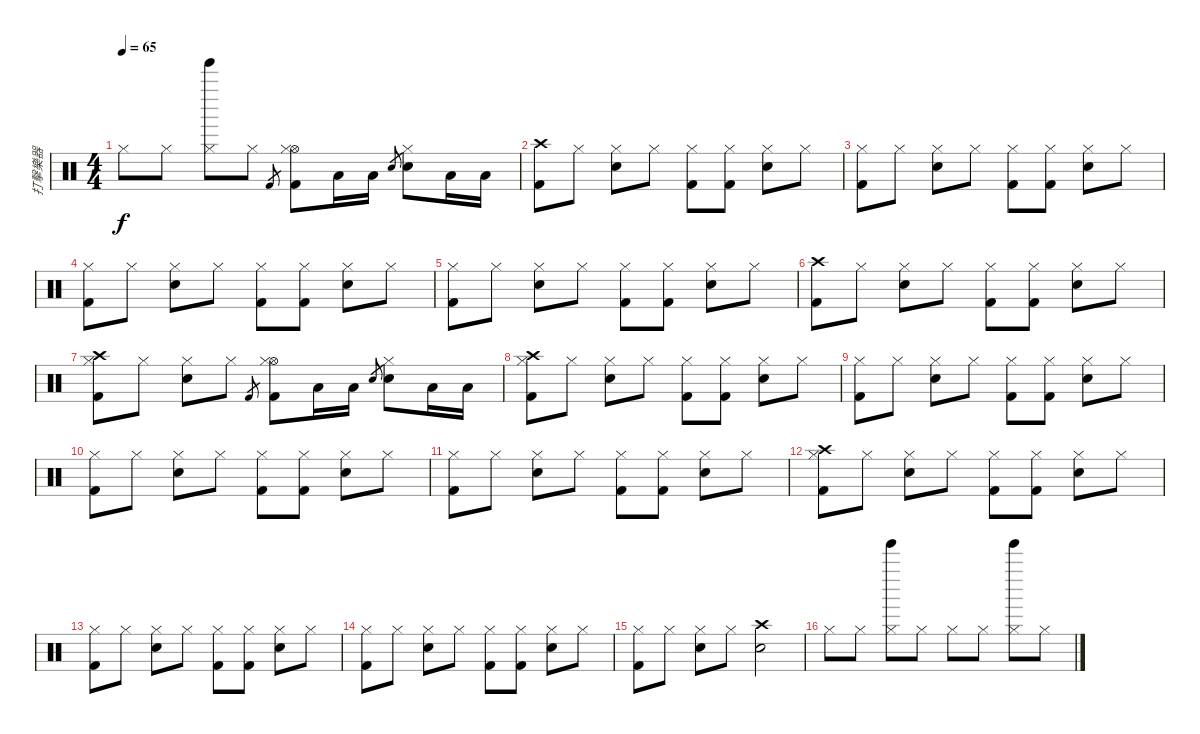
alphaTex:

\track ("打擊樂器" "打擊樂器") {instrument percussion}
\staff {score}
\articulation defaults
\ts (4 4)
\tempo 65
\clef neutral
\ks c "Hi-Hat (closed)".8{dy f} "Hi-Hat (closed)".8
("Tinkle Bell (hit)" "Hi-Hat (closed)").8 "Hi-Hat (closed)".8 "Kick (hit) 2".8{gr} ("Hi-Hat (open)" "Kick (hit) 2" "Hi-Hat (closed)").8 "Low Floor Tom (hit)".16 "Low Floor Tom (hit)".16 "Snare (hit) 2".8{gr} ("Snare (hit) 2" "Hi-Hat (closed)").8 "Low Floor Tom (hit)".16 "Low Floor Tom (hit)".16 |
("Crash high (hit)" "Kick (hit) 2").8 "Hi-Hat (closed)".8 ("Snare (hit) 2" "Hi-Hat (closed)").8 "Hi-Hat (closed)".8 ("Kick (hit) 2" "Hi-Hat (closed)").8 ("Kick (hit) 2" "Hi-Hat (closed)").8 ("Snare (hit) 2" "Hi-Hat (closed)").8 "Hi-Hat (closed)".8 |
("Kick (hit) 2" "Hi-Hat (closed)").8 "Hi-Hat (closed)".8 ("Snare (hit) 2" "Hi-Hat (closed)").8 "Hi-Hat (closed)".8 ("Kick (hit) 2" "Hi-Hat (closed)").8 ("Kick (hit) 2" "Hi-Hat (closed)").8 ("Snare (hit) 2" "Hi-Hat (closed)").8 "Hi-Hat (closed)".8 |
("Kick (hit) 2" "Hi-Hat (closed)").8 "Hi-Hat (closed)".8 ("Snare (hit) 2" "Hi-Hat (closed)").8 "Hi-Hat (closed)".8 ("Kick (hit) 2" "Hi-Hat (closed)").8 ("Kick (hit) 2" "Hi-Hat (closed)").8 ("Snare (hit) 2" "Hi-Hat (closed)").8 "Hi-Hat (closed)".8 |
("Kick (hit) 2" "Hi-Hat (closed)").8 "Hi-Hat (closed)".8 ("Snare (hit) 2" "Hi-Hat (closed)").8 "Hi-Hat (closed)".8 ("Kick (hit) 2" "Hi-Hat (closed)").8 ("Kick (hit) 2" "Hi-Hat (closed)").8 ("Snare (hit) 2" "Hi-Hat (closed)").8 "Hi-Hat (closed)".8 |
("Crash high (hit)" "Kick (hit) 2").8 "Hi-Hat (closed)".8 ("Snare (hit) 2" "Hi-Hat (closed)").8 "Hi-Hat (closed)".8 ("Kick (hit) 2" "Hi-Hat (closed)").8 ("Kick (hit) 2" "Hi-Hat (closed)").8 ("Snare (hit) 2" "Hi-Hat (closed)").8 "Hi-Hat (closed)".8 |
("Crash high (hit)" "Kick (hit) 2" "Hi-Hat (closed)").8 "Hi-Hat (closed)".8 ("Snare (hit) 2" "Hi-Hat (closed)").8 "Hi-Hat (closed)".8 "Kick (hit) 2".8{gr} ("Hi-Hat (open)" "Kick (hit) 2" "Hi-Hat (closed)").8 "Low Floor Tom (hit)".16 "Low Floor Tom (hit)".16 "Snare (hit) 2".8{gr} ("Snare (hit) 2" "Hi-Hat (closed)").8 "Low Floor Tom (hit)".16 "Low Floor Tom (hit)".16 |
("Crash high (hit)" "Kick (hit) 2" "Hi-Hat (closed)").8 "Hi-Hat (closed)".8 ("Snare (hit) 2" "Hi-Hat (closed)").8 "Hi-Hat (closed)".8 ("Kick (hit) 2" "Hi-Hat (closed)").8 ("Kick (hit) 2" "Hi-Hat (closed)").8 ("Snare (hit) 2" "Hi-Hat (closed)").8 "Hi-Hat (closed)".8 |
("Kick (hit) 2" "Hi-Hat (closed)").8 "Hi-Hat (closed)".8 ("Snare (hit) 2" "Hi-Hat (closed)").8 "Hi-Hat (closed)".8 ("Kick (hit) 2" "Hi-Hat (closed)").8 ("Kick (hit) 2" "Hi-Hat (closed)").8 ("Snare (hit) 2" "Hi-Hat (closed)").8 "Hi-Hat (closed)".8 |
("Kick (hit) 2" "Hi-Hat (closed)").8 "Hi-Hat (closed)".8 ("Snare (hit) 2" "Hi-Hat (closed)").8 "Hi-Hat (closed)".8 ("Kick (hit) 2" "Hi-Hat (closed)").8 ("Kick (hit) 2" "Hi-Hat (closed)").8 ("Snare (hit) 2" "Hi-Hat (closed)").8 "Hi-Hat (closed)".8 |
("Kick (hit) 2" "Hi-Hat (closed)").8 "Hi-Hat (closed)".8 ("Snare (hit) 2" "Hi-Hat (closed)").8 "Hi-Hat (closed)".8 ("Kick (hit) 2" "Hi-Hat (closed)").8 ("Kick (hit) 2" "Hi-Hat (closed)").8 ("Snare (hit) 2" "Hi-Hat (closed)").8 "Hi-Hat (closed)".8 |
("Crash high (hit)" "Kick (hit) 2" "Hi-Hat (closed)").8 "Hi-Hat (closed)".8 ("Snare (hit) 2" "Hi-Hat (closed)").8 "Hi-Hat (closed)".8 ("Kick (hit) 2" "Hi-Hat (closed)").8 ("Kick (hit) 2" "Hi-Hat (closed)").8 ("Snare (hit) 2" "Hi-Hat (closed)").8 "Hi-Hat (closed)".8 |
("Kick (hit) 2" "Hi-Hat (closed)").8 "Hi-Hat (closed)".8 ("Snare (hit) 2" "Hi-Hat (closed)").8 "Hi-Hat (closed)".8 ("Kick (hit) 2" "Hi-Hat (closed)").8 ("Kick (hit) 2" "Hi-Hat (closed)").8 ("Snare (hit) 2" "Hi-Hat (closed)").8 "Hi-Hat (closed)".8 |
("Kick (hit) 2" "Hi-Hat (closed)").8 "Hi-Hat (closed)".8 ("Snare (hit) 2" "Hi-Hat (closed)").8 "Hi-Hat (closed)".8 ("Kick (hit) 2" "Hi-Hat (closed)").8 ("Kick (hit) 2" "Hi-Hat (closed)").8 ("Snare (hit) 2" "Hi-Hat (closed)").8 "Hi-Hat (closed)".8 |
("Kick (hit) 2" "Hi-Hat (closed)").8 "Hi-Hat (closed)".8 ("Snare (hit) 2" "Hi-Hat (closed)").8 "Hi-Hat (closed)".8 ("Crash high (hit)" "Snare (hit) 2").2 |
"Hi-Hat (closed)".8 "Hi-Hat (closed)".8 ("Tinkle Bell (hit)" "Hi-Hat (closed)").8 "Hi-Hat (closed)".8 "Hi-Hat (closed)".8 "Hi-Hat (closed)".8 ("Tinkle Bell (hit)" "Hi-Hat (closed)").8 "Hi-Hat (closed)".8
